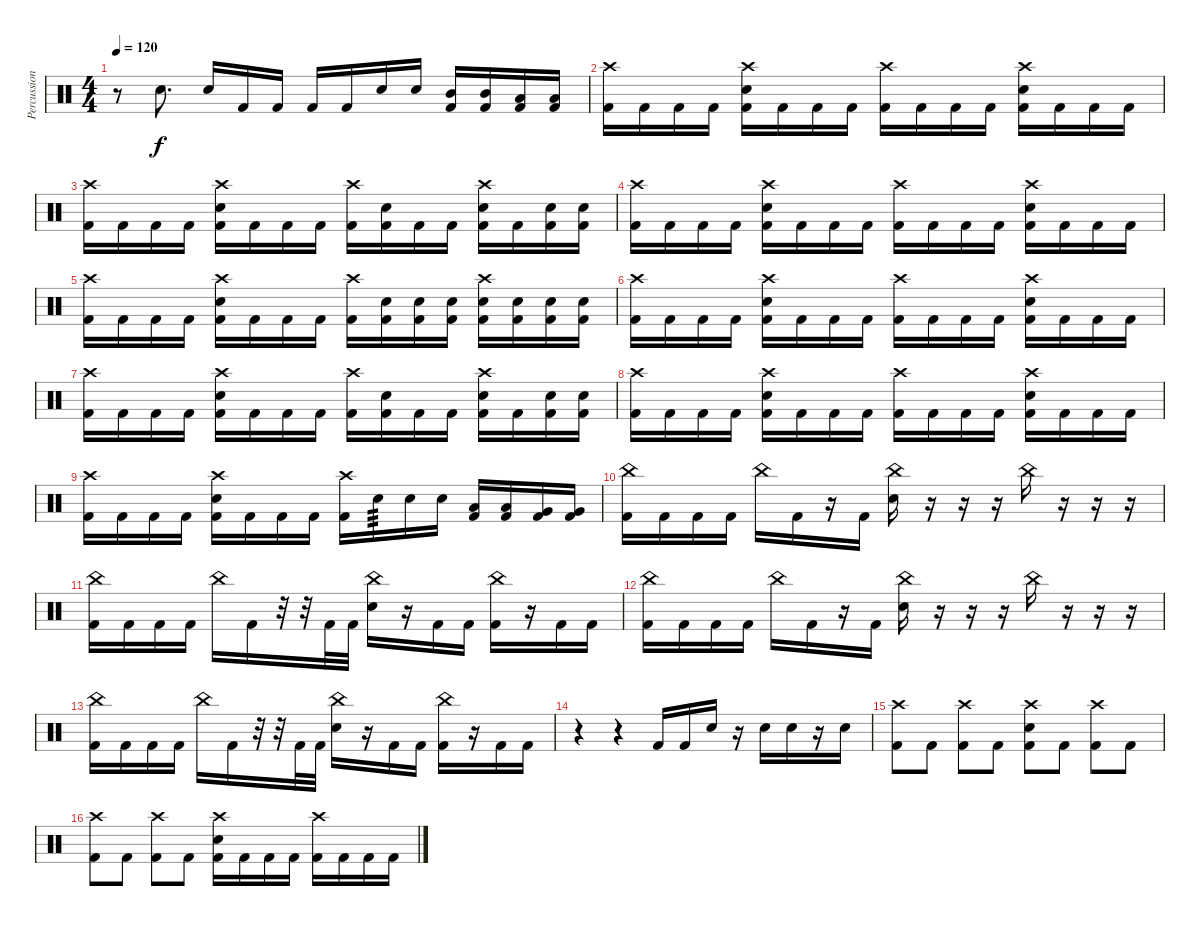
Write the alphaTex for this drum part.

\track ("Percussion" "Percussion") {instrument percussion}
\staff {score}
\articulation defaults
\ts (4 4)
\tempo 120
\clef neutral
\ks c
r.8{dy f} "Snare (hit) 2".8{d} "Snare (hit) 2".16 "Kick (hit) 2".16 "Kick (hit) 2".16 "Kick (hit) 2".16 "Kick (hit) 2".16 "Snare (hit) 2".16 "Snare (hit) 2".16 ("Mid Tom (hit)" "Kick (hit) 2").16 ("Mid Tom (hit)" "Kick (hit) 2").16 ("Low Tom (hit)" "Kick (hit) 2").16 ("Low Tom (hit)" "Kick (hit) 2").16 |
("Crash high (hit)" "Kick (hit) 2").16 "Kick (hit) 2".16 "Kick (hit) 2".16 "Kick (hit) 2".16 ("Crash high (hit)" "Snare (hit) 2" "Kick (hit) 2").16 "Kick (hit) 2".16 "Kick (hit) 2".16 "Kick (hit) 2".16 ("Crash high (hit)" "Kick (hit) 2").16 "Kick (hit) 2".16 "Kick (hit) 2".16 "Kick (hit) 2".16 ("Crash high (hit)" "Snare (hit) 2" "Kick (hit) 2").16 "Kick (hit) 2".16 "Kick (hit) 2".16 "Kick (hit) 2".16 |
("Crash high (hit)" "Kick (hit) 2").16 "Kick (hit) 2".16 "Kick (hit) 2".16 "Kick (hit) 2".16 ("Crash high (hit)" "Snare (hit) 2" "Kick (hit) 2").16 "Kick (hit) 2".16 "Kick (hit) 2".16 "Kick (hit) 2".16 ("Crash high (hit)" "Kick (hit) 2").16 ("Snare (hit) 2" "Kick (hit) 2").16 "Kick (hit) 2".16 "Kick (hit) 2".16 ("Crash high (hit)" "Snare (hit) 2" "Kick (hit) 2").16 "Kick (hit) 2".16 ("Snare (hit) 2" "Kick (hit) 2").16 ("Snare (hit) 2" "Kick (hit) 2").16 |
("Crash high (hit)" "Kick (hit) 2").16 "Kick (hit) 2".16 "Kick (hit) 2".16 "Kick (hit) 2".16 ("Crash high (hit)" "Snare (hit) 2" "Kick (hit) 2").16 "Kick (hit) 2".16 "Kick (hit) 2".16 "Kick (hit) 2".16 ("Crash high (hit)" "Kick (hit) 2").16 "Kick (hit) 2".16 "Kick (hit) 2".16 "Kick (hit) 2".16 ("Crash high (hit)" "Snare (hit) 2" "Kick (hit) 2").16 "Kick (hit) 2".16 "Kick (hit) 2".16 "Kick (hit) 2".16 |
("Crash high (hit)" "Kick (hit) 2").16 "Kick (hit) 2".16 "Kick (hit) 2".16 "Kick (hit) 2".16 ("Crash high (hit)" "Snare (hit) 2" "Kick (hit) 2").16 "Kick (hit) 2".16 "Kick (hit) 2".16 "Kick (hit) 2".16 ("Crash high (hit)" "Kick (hit) 2").16 ("Snare (hit) 2" "Kick (hit) 2").16 ("Snare (hit) 2" "Kick (hit) 2").16 ("Snare (hit) 2" "Kick (hit) 2").16 ("Crash high (hit)" "Snare (hit) 2" "Kick (hit) 2").16 ("Snare (hit) 2" "Kick (hit) 2").16 ("Snare (hit) 2" "Kick (hit) 2").16 ("Snare (hit) 2" "Kick (hit) 2").16 |
("Crash high (hit)" "Kick (hit) 2").16 "Kick (hit) 2".16 "Kick (hit) 2".16 "Kick (hit) 2".16 ("Crash high (hit)" "Snare (hit) 2" "Kick (hit) 2").16 "Kick (hit) 2".16 "Kick (hit) 2".16 "Kick (hit) 2".16 ("Crash high (hit)" "Kick (hit) 2").16 "Kick (hit) 2".16 "Kick (hit) 2".16 "Kick (hit) 2".16 ("Crash high (hit)" "Snare (hit) 2" "Kick (hit) 2").16 "Kick (hit) 2".16 "Kick (hit) 2".16 "Kick (hit) 2".16 |
("Crash high (hit)" "Kick (hit) 2").16 "Kick (hit) 2".16 "Kick (hit) 2".16 "Kick (hit) 2".16 ("Crash high (hit)" "Snare (hit) 2" "Kick (hit) 2").16 "Kick (hit) 2".16 "Kick (hit) 2".16 "Kick (hit) 2".16 ("Crash high (hit)" "Kick (hit) 2").16 ("Snare (hit) 2" "Kick (hit) 2").16 "Kick (hit) 2".16 "Kick (hit) 2".16 ("Crash high (hit)" "Snare (hit) 2" "Kick (hit) 2").16 "Kick (hit) 2".16 ("Snare (hit) 2" "Kick (hit) 2").16 ("Snare (hit) 2" "Kick (hit) 2").16 |
("Crash high (hit)" "Kick (hit) 2").16 "Kick (hit) 2".16 "Kick (hit) 2".16 "Kick (hit) 2".16 ("Crash high (hit)" "Snare (hit) 2" "Kick (hit) 2").16 "Kick (hit) 2".16 "Kick (hit) 2".16 "Kick (hit) 2".16 ("Crash high (hit)" "Kick (hit) 2").16 "Kick (hit) 2".16 "Kick (hit) 2".16 "Kick (hit) 2".16 ("Crash high (hit)" "Snare (hit) 2" "Kick (hit) 2").16 "Kick (hit) 2".16 "Kick (hit) 2".16 "Kick (hit) 2".16 |
("Crash high (hit)" "Kick (hit) 2").16 "Kick (hit) 2".16 "Kick (hit) 2".16 "Kick (hit) 2".16 ("Crash high (hit)" "Snare (hit) 2" "Kick (hit) 2").16 "Kick (hit) 2".16 "Kick (hit) 2".16 "Kick (hit) 2".16 ("Crash high (hit)" "Kick (hit) 2").16 "Snare (hit) 2".16{tp 3} "Snare (hit) 2".16 "Snare (hit) 2".16 ("Low Tom (hit)" "Kick (hit) 2").16 ("Low Tom (hit)" "Kick (hit) 2").16 ("Very Low Tom (hit)" "Kick (hit) 2").16 ("Very Low Tom (hit)" "Kick (hit) 2").16 |
("China (hit)" "Kick (hit) 2").16 "Kick (hit) 2".16 "Kick (hit) 2".16 "Kick (hit) 2".16 "China (hit)".16 "Kick (hit) 2".16 r.16 "Kick (hit) 2".16 ("China (hit)" "Snare (hit) 2").16 r.16 r.16 r.16 "China (hit)".16 r.16 r.16 r.16 |
("China (hit)" "Kick (hit) 2").16 "Kick (hit) 2".16 "Kick (hit) 2".16 "Kick (hit) 2".16 "China (hit)".16 "Kick (hit) 2".16 r.32 r.32 "Kick (hit) 2".32 "Kick (hit) 2".32 ("China (hit)" "Snare (hit) 2").16 r.16 "Kick (hit) 2".16 "Kick (hit) 2".16 ("China (hit)" "Kick (hit) 2").16 r.16 "Kick (hit) 2".16 "Kick (hit) 2".16 |
("China (hit)" "Kick (hit) 2").16 "Kick (hit) 2".16 "Kick (hit) 2".16 "Kick (hit) 2".16 "China (hit)".16 "Kick (hit) 2".16 r.16 "Kick (hit) 2".16 ("China (hit)" "Snare (hit) 2").16 r.16 r.16 r.16 "China (hit)".16 r.16 r.16 r.16 |
("China (hit)" "Kick (hit) 2").16 "Kick (hit) 2".16 "Kick (hit) 2".16 "Kick (hit) 2".16 "China (hit)".16 "Kick (hit) 2".16 r.32 r.32 "Kick (hit) 2".32 "Kick (hit) 2".32 ("China (hit)" "Snare (hit) 2").16 r.16 "Kick (hit) 2".16 "Kick (hit) 2".16 ("China (hit)" "Kick (hit) 2").16 r.16 "Kick (hit) 2".16 "Kick (hit) 2".16 |
r.4 r.4 "Kick (hit) 2".16 "Kick (hit) 2".16 "Snare (hit) 2".16 r.16 "Snare (hit) 2".16 "Snare (hit) 2".16 r.16 "Snare (hit) 2".16 |
("Crash high (hit)" "Kick (hit) 2").8 "Kick (hit) 2".8 ("Crash high (hit)" "Kick (hit) 2").8 "Kick (hit) 2".8 ("Crash high (hit)" "Snare (hit) 2" "Kick (hit) 2").8 "Kick (hit) 2".8 ("Crash high (hit)" "Kick (hit) 2").8 "Kick (hit) 2".8 |
("Crash high (hit)" "Kick (hit) 2").8 "Kick (hit) 2".8 ("Crash high (hit)" "Kick (hit) 2").8 "Kick (hit) 2".8 ("Crash high (hit)" "Snare (hit) 2" "Kick (hit) 2").16 "Kick (hit) 2".16 "Kick (hit) 2".16 "Kick (hit) 2".16 ("Crash high (hit)" "Kick (hit) 2").16 "Kick (hit) 2".16 "Kick (hit) 2".16 "Kick (hit) 2".16
